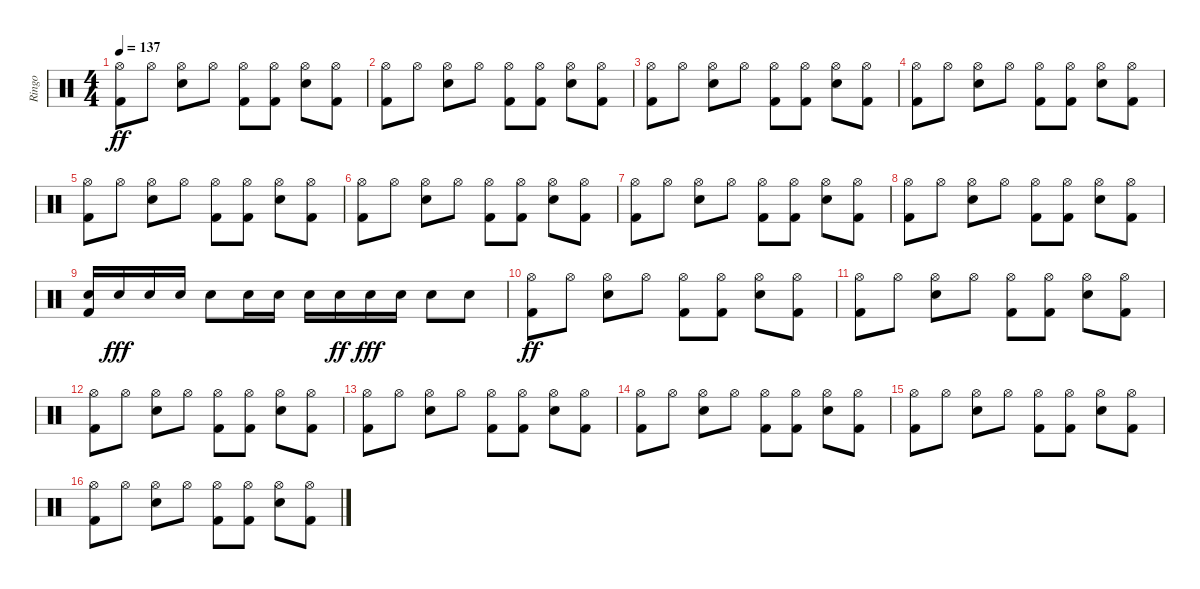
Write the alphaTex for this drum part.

\track ("Ringo" "Ringo") {instrument percussion}
\staff {score}
\articulation defaults
\ts (4 4)
\tempo 137
\clef neutral
\ks c
("Kick (hit) 2" "Hi-Hat (open)").8{dy ff} "Hi-Hat (open)".8 ("Snare (hit) 2" "Hi-Hat (open)").8 "Hi-Hat (open)".8 ("Kick (hit) 2" "Hi-Hat (open)").8 ("Kick (hit) 2" "Hi-Hat (open)").8 ("Snare (hit) 2" "Hi-Hat (open)").8 ("Kick (hit) 2" "Hi-Hat (open)").8 |
("Kick (hit) 2" "Hi-Hat (open)").8 "Hi-Hat (open)".8 ("Snare (hit) 2" "Hi-Hat (open)").8 "Hi-Hat (open)".8 ("Kick (hit) 2" "Hi-Hat (open)").8 ("Kick (hit) 2" "Hi-Hat (open)").8 ("Snare (hit) 2" "Hi-Hat (open)").8 ("Kick (hit) 2" "Hi-Hat (open)").8 |
("Kick (hit) 2" "Hi-Hat (open)").8 "Hi-Hat (open)".8 ("Snare (hit) 2" "Hi-Hat (open)").8 "Hi-Hat (open)".8 ("Kick (hit) 2" "Hi-Hat (open)").8 ("Kick (hit) 2" "Hi-Hat (open)").8 ("Snare (hit) 2" "Hi-Hat (open)").8 ("Kick (hit) 2" "Hi-Hat (open)").8 |
("Kick (hit) 2" "Hi-Hat (open)").8 "Hi-Hat (open)".8 ("Snare (hit) 2" "Hi-Hat (open)").8 "Hi-Hat (open)".8 ("Kick (hit) 2" "Hi-Hat (open)").8 ("Kick (hit) 2" "Hi-Hat (open)").8 ("Snare (hit) 2" "Hi-Hat (open)").8 ("Kick (hit) 2" "Hi-Hat (open)").8 |
("Kick (hit) 2" "Hi-Hat (open)").8 "Hi-Hat (open)".8 ("Snare (hit) 2" "Hi-Hat (open)").8 "Hi-Hat (open)".8 ("Kick (hit) 2" "Hi-Hat (open)").8 ("Kick (hit) 2" "Hi-Hat (open)").8 ("Snare (hit) 2" "Hi-Hat (open)").8 ("Kick (hit) 2" "Hi-Hat (open)").8 |
("Kick (hit) 2" "Hi-Hat (open)").8 "Hi-Hat (open)".8 ("Snare (hit) 2" "Hi-Hat (open)").8 "Hi-Hat (open)".8 ("Kick (hit) 2" "Hi-Hat (open)").8 ("Kick (hit) 2" "Hi-Hat (open)").8 ("Snare (hit) 2" "Hi-Hat (open)").8 ("Kick (hit) 2" "Hi-Hat (open)").8 |
("Kick (hit) 2" "Hi-Hat (open)").8 "Hi-Hat (open)".8 ("Snare (hit) 2" "Hi-Hat (open)").8 "Hi-Hat (open)".8 ("Kick (hit) 2" "Hi-Hat (open)").8 ("Kick (hit) 2" "Hi-Hat (open)").8 ("Snare (hit) 2" "Hi-Hat (open)").8 ("Kick (hit) 2" "Hi-Hat (open)").8 |
("Kick (hit) 2" "Hi-Hat (open)").8 "Hi-Hat (open)".8 ("Snare (hit) 2" "Hi-Hat (open)").8 "Hi-Hat (open)".8 ("Kick (hit) 2" "Hi-Hat (open)").8 ("Kick (hit) 2" "Hi-Hat (open)").8 ("Snare (hit) 2" "Hi-Hat (open)").8 ("Kick (hit) 2" "Hi-Hat (open)").8 |
("Kick (hit) 2" "Snare (hit) 2").16 "Snare (hit) 2".16{dy fff} "Snare (hit) 2".16 "Snare (hit) 2".16 "Snare (hit) 2".8 "Snare (hit) 2".16 "Snare (hit) 2".16 "Snare (hit) 2".16 "Snare (hit) 2".16{dy ff} "Snare (hit) 2".16{dy fff} "Snare (hit) 2".16 "Snare (hit) 2".8 "Snare (hit) 2".8 |
("Kick (hit) 2" "Hi-Hat (open)").8{dy ff} "Hi-Hat (open)".8 ("Snare (hit) 2" "Hi-Hat (open)").8 "Hi-Hat (open)".8 ("Kick (hit) 2" "Hi-Hat (open)").8 ("Kick (hit) 2" "Hi-Hat (open)").8 ("Snare (hit) 2" "Hi-Hat (open)").8 ("Kick (hit) 2" "Hi-Hat (open)").8 |
("Kick (hit) 2" "Hi-Hat (open)").8 "Hi-Hat (open)".8 ("Snare (hit) 2" "Hi-Hat (open)").8 "Hi-Hat (open)".8 ("Kick (hit) 2" "Hi-Hat (open)").8 ("Kick (hit) 2" "Hi-Hat (open)").8 ("Snare (hit) 2" "Hi-Hat (open)").8 ("Kick (hit) 2" "Hi-Hat (open)").8 |
("Kick (hit) 2" "Hi-Hat (open)").8 "Hi-Hat (open)".8 ("Snare (hit) 2" "Hi-Hat (open)").8 "Hi-Hat (open)".8 ("Kick (hit) 2" "Hi-Hat (open)").8 ("Kick (hit) 2" "Hi-Hat (open)").8 ("Snare (hit) 2" "Hi-Hat (open)").8 ("Kick (hit) 2" "Hi-Hat (open)").8 |
("Kick (hit) 2" "Hi-Hat (open)").8 "Hi-Hat (open)".8 ("Snare (hit) 2" "Hi-Hat (open)").8 "Hi-Hat (open)".8 ("Kick (hit) 2" "Hi-Hat (open)").8 ("Kick (hit) 2" "Hi-Hat (open)").8 ("Snare (hit) 2" "Hi-Hat (open)").8 ("Kick (hit) 2" "Hi-Hat (open)").8 |
("Kick (hit) 2" "Hi-Hat (open)").8 "Hi-Hat (open)".8 ("Snare (hit) 2" "Hi-Hat (open)").8 "Hi-Hat (open)".8 ("Kick (hit) 2" "Hi-Hat (open)").8 ("Kick (hit) 2" "Hi-Hat (open)").8 ("Snare (hit) 2" "Hi-Hat (open)").8 ("Kick (hit) 2" "Hi-Hat (open)").8 |
("Kick (hit) 2" "Hi-Hat (open)").8 "Hi-Hat (open)".8 ("Snare (hit) 2" "Hi-Hat (open)").8 "Hi-Hat (open)".8 ("Kick (hit) 2" "Hi-Hat (open)").8 ("Kick (hit) 2" "Hi-Hat (open)").8 ("Snare (hit) 2" "Hi-Hat (open)").8 ("Kick (hit) 2" "Hi-Hat (open)").8 |
("Kick (hit) 2" "Hi-Hat (open)").8 "Hi-Hat (open)".8 ("Snare (hit) 2" "Hi-Hat (open)").8 "Hi-Hat (open)".8 ("Kick (hit) 2" "Hi-Hat (open)").8 ("Kick (hit) 2" "Hi-Hat (open)").8 ("Snare (hit) 2" "Hi-Hat (open)").8 ("Kick (hit) 2" "Hi-Hat (open)").8
